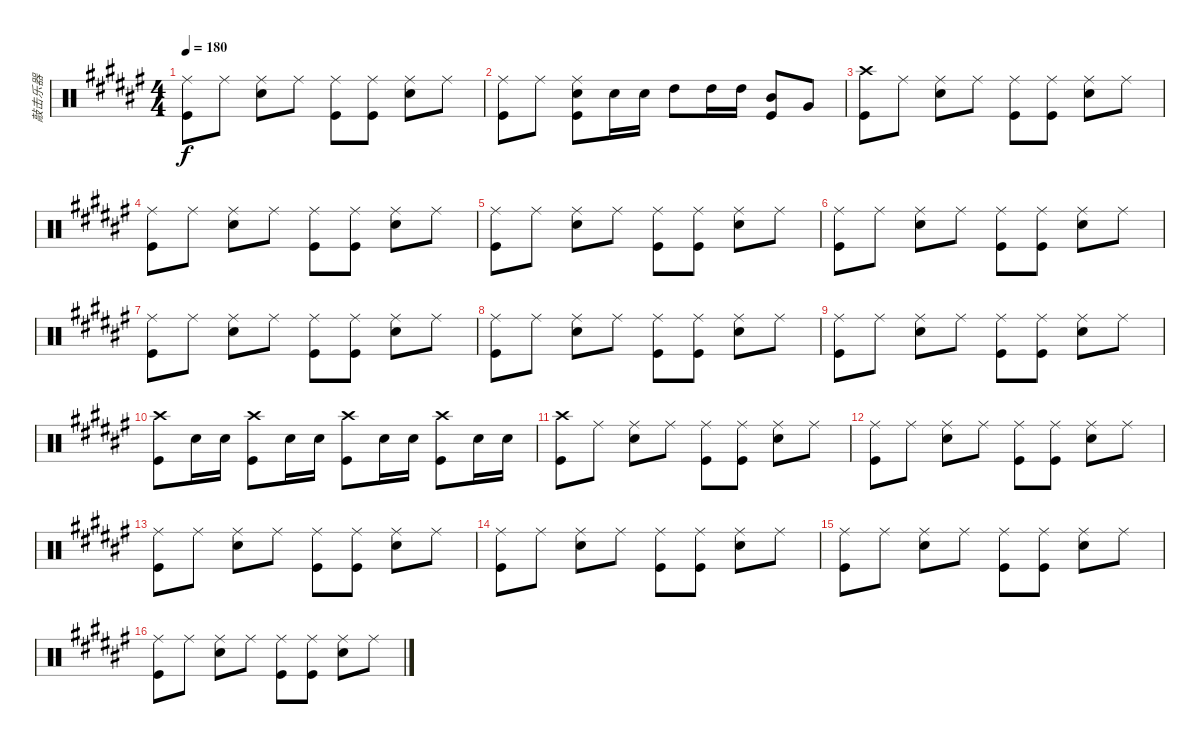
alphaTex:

\track ("敲击乐器" "敲击乐器") {instrument percussion}
\staff {score}
\articulation defaults
\ts (4 4)
\tempo 180
\clef neutral
\ks f#
("Ride (middle)" "Kick (hit)").8{dy f} "Ride (middle)".8 ("Ride (middle)" "Electric Snare (hit)").8 "Ride (middle)".8 ("Ride (middle)" "Kick (hit)").8 ("Ride (middle)" "Kick (hit)").8 ("Ride (middle)" "Electric Snare (hit)").8 "Ride (middle)".8 |
("Ride (middle)" "Kick (hit)").8 "Ride (middle)".8 ("Ride (middle)" "Electric Snare (hit)" "Kick (hit)").8 "Electric Snare (hit)".16 "Electric Snare (hit)".16 "High Tom (hit)".8 "High Tom (hit)".16 "High Tom (hit)".16 ("Mid Tom (hit)" "Kick (hit)").8 "Very Low Tom (hit)".8 |
("Crash high (hit)" "Kick (hit)").8 "Ride (middle)".8 ("Ride (middle)" "Electric Snare (hit)").8 "Ride (middle)".8 ("Ride (middle)" "Kick (hit)").8 ("Ride (middle)" "Kick (hit)").8 ("Ride (middle)" "Electric Snare (hit)").8 "Ride (middle)".8 |
("Ride (middle)" "Kick (hit)").8 "Ride (middle)".8 ("Ride (middle)" "Electric Snare (hit)").8 "Ride (middle)".8 ("Ride (middle)" "Kick (hit)").8 ("Ride (middle)" "Kick (hit)").8 ("Ride (middle)" "Electric Snare (hit)").8 "Ride (middle)".8 |
("Ride (middle)" "Kick (hit)").8 "Ride (middle)".8 ("Ride (middle)" "Electric Snare (hit)").8 "Ride (middle)".8 ("Ride (middle)" "Kick (hit)").8 ("Ride (middle)" "Kick (hit)").8 ("Ride (middle)" "Electric Snare (hit)").8 "Ride (middle)".8 |
("Ride (middle)" "Kick (hit)").8 "Ride (middle)".8 ("Ride (middle)" "Electric Snare (hit)").8 "Ride (middle)".8 ("Ride (middle)" "Kick (hit)").8 ("Ride (middle)" "Kick (hit)").8 ("Ride (middle)" "Electric Snare (hit)").8 "Ride (middle)".8 |
("Ride (middle)" "Kick (hit)").8 "Ride (middle)".8 ("Ride (middle)" "Electric Snare (hit)").8 "Ride (middle)".8 ("Ride (middle)" "Kick (hit)").8 ("Ride (middle)" "Kick (hit)").8 ("Ride (middle)" "Electric Snare (hit)").8 "Ride (middle)".8 |
("Ride (middle)" "Kick (hit)").8 "Ride (middle)".8 ("Ride (middle)" "Electric Snare (hit)").8 "Ride (middle)".8 ("Ride (middle)" "Kick (hit)").8 ("Ride (middle)" "Kick (hit)").8 ("Ride (middle)" "Electric Snare (hit)").8 "Ride (middle)".8 |
("Ride (middle)" "Kick (hit)").8 "Ride (middle)".8 ("Ride (middle)" "Electric Snare (hit)").8 "Ride (middle)".8 ("Ride (middle)" "Kick (hit)").8 ("Ride (middle)" "Kick (hit)").8 ("Ride (middle)" "Electric Snare (hit)").8 "Ride (middle)".8 |
("Crash high (hit)" "Kick (hit)").8 "Electric Snare (hit)".16 "Electric Snare (hit)".16 ("Crash high (hit)" "Kick (hit)").8 "Electric Snare (hit)".16 "Electric Snare (hit)".16 ("Crash high (hit)" "Kick (hit)").8 "Electric Snare (hit)".16 "Electric Snare (hit)".16 ("Crash high (hit)" "Kick (hit)").8 "Electric Snare (hit)".16 "Electric Snare (hit)".16 |
("Crash high (hit)" "Kick (hit)").8 "Ride (middle)".8 ("Ride (middle)" "Electric Snare (hit)").8 "Ride (middle)".8 ("Ride (middle)" "Kick (hit)").8 ("Ride (middle)" "Kick (hit)").8 ("Ride (middle)" "Electric Snare (hit)").8 "Ride (middle)".8 |
("Ride (middle)" "Kick (hit)").8 "Ride (middle)".8 ("Ride (middle)" "Electric Snare (hit)").8 "Ride (middle)".8 ("Ride (middle)" "Kick (hit)").8 ("Ride (middle)" "Kick (hit)").8 ("Ride (middle)" "Electric Snare (hit)").8 "Ride (middle)".8 |
("Ride (middle)" "Kick (hit)").8 "Ride (middle)".8 ("Ride (middle)" "Electric Snare (hit)").8 "Ride (middle)".8 ("Ride (middle)" "Kick (hit)").8 ("Ride (middle)" "Kick (hit)").8 ("Ride (middle)" "Electric Snare (hit)").8 "Ride (middle)".8 |
("Ride (middle)" "Kick (hit)").8 "Ride (middle)".8 ("Ride (middle)" "Electric Snare (hit)").8 "Ride (middle)".8 ("Ride (middle)" "Kick (hit)").8 ("Ride (middle)" "Kick (hit)").8 ("Ride (middle)" "Electric Snare (hit)").8 "Ride (middle)".8 |
("Ride (middle)" "Kick (hit)").8 "Ride (middle)".8 ("Ride (middle)" "Electric Snare (hit)").8 "Ride (middle)".8 ("Ride (middle)" "Kick (hit)").8 ("Ride (middle)" "Kick (hit)").8 ("Ride (middle)" "Electric Snare (hit)").8 "Ride (middle)".8 |
("Ride (middle)" "Kick (hit)").8 "Ride (middle)".8 ("Ride (middle)" "Electric Snare (hit)").8 "Ride (middle)".8 ("Ride (middle)" "Kick (hit)").8 ("Ride (middle)" "Kick (hit)").8 ("Ride (middle)" "Electric Snare (hit)").8 "Ride (middle)".8
